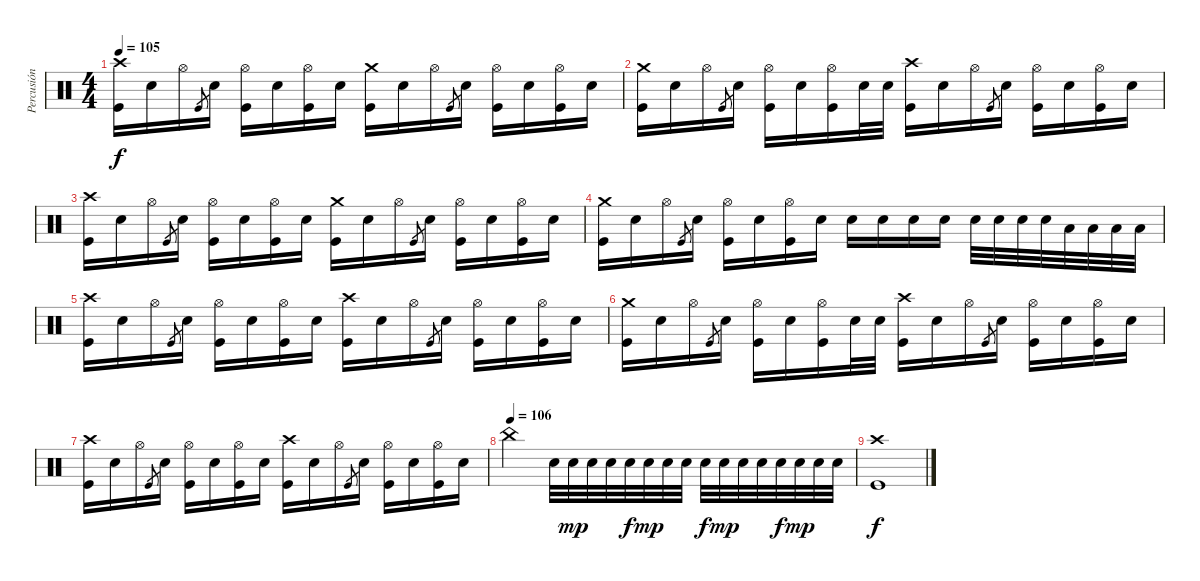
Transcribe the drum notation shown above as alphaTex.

\track ("Percusión" "Percusión") {instrument percussion}
\staff {score}
\articulation defaults
\ts (4 4)
\tempo 105
\clef neutral
\ks c
("Kick (hit)" "Crash high (hit)").16{dy f} "Snare (hit) 2".16 "Hi-Hat (open)".16 "Kick (hit)".8{gr} "Snare (hit) 2".16 ("Kick (hit)" "Hi-Hat (open)").16 "Snare (hit) 2".16 ("Kick (hit)" "Hi-Hat (open)").16 "Snare (hit) 2".16 ("Kick (hit)" "Crash medium (hit)").16 "Snare (hit) 2".16 "Hi-Hat (open)".16 "Kick (hit)".8{gr} "Snare (hit) 2".16 ("Kick (hit)" "Hi-Hat (open)").16 "Snare (hit) 2".16 ("Kick (hit)" "Hi-Hat (open)").16 "Snare (hit) 2".16 |
("Kick (hit)" "Crash medium (hit)").16 "Snare (hit) 2".16 "Hi-Hat (open)".16 "Kick (hit)".8{gr} "Snare (hit) 2".16 ("Kick (hit)" "Hi-Hat (open)").16 "Snare (hit) 2".16 ("Kick (hit)" "Hi-Hat (open)").16 "Snare (hit) 2".32 "Snare (hit) 2".32 ("Kick (hit)" "Crash high (hit)").16 "Snare (hit) 2".16 "Hi-Hat (open)".16 "Kick (hit)".8{gr} "Snare (hit) 2".16 ("Kick (hit)" "Hi-Hat (open)").16 "Snare (hit) 2".16 ("Kick (hit)" "Hi-Hat (open)").16 "Snare (hit) 2".16 |
("Kick (hit)" "Crash high (hit)").16 "Snare (hit) 2".16 "Hi-Hat (open)".16 "Kick (hit)".8{gr} "Snare (hit) 2".16 ("Kick (hit)" "Hi-Hat (open)").16 "Snare (hit) 2".16 ("Kick (hit)" "Hi-Hat (open)").16 "Snare (hit) 2".16 ("Kick (hit)" "Crash medium (hit)").16 "Snare (hit) 2".16 "Hi-Hat (open)".16 "Kick (hit)".8{gr} "Snare (hit) 2".16 ("Kick (hit)" "Hi-Hat (open)").16 "Snare (hit) 2".16 ("Kick (hit)" "Hi-Hat (open)").16 "Snare (hit) 2".16 |
("Kick (hit)" "Crash medium (hit)").16 "Snare (hit) 2".16 "Hi-Hat (open)".16 "Kick (hit)".8{gr} "Snare (hit) 2".16 ("Kick (hit)" "Hi-Hat (open)").16 "Snare (hit) 2".16 ("Kick (hit)" "Hi-Hat (open)").16 "Snare (hit) 2".16 "Snare (hit) 2".16 "Snare (hit) 2".16 "Snare (hit) 2".16 "Snare (hit) 2".16 "Snare (hit) 2".32 "Snare (hit) 2".32 "Snare (hit) 2".32 "Snare (hit) 2".32 "Low Tom (hit)".32 "Low Tom (hit)".32 "Low Tom (hit)".32 "Low Tom (hit)".32 |
("Kick (hit)" "Crash high (hit)").16 "Snare (hit) 2".16 "Hi-Hat (open)".16 "Kick (hit)".8{gr} "Snare (hit) 2".16 ("Kick (hit)" "Hi-Hat (open)").16 "Snare (hit) 2".16 ("Kick (hit)" "Hi-Hat (open)").16 "Snare (hit) 2".16 ("Kick (hit)" "Crash high (hit)").16 "Snare (hit) 2".16 "Hi-Hat (open)".16 "Kick (hit)".8{gr} "Snare (hit) 2".16 ("Kick (hit)" "Hi-Hat (open)").16 "Snare (hit) 2".16 ("Kick (hit)" "Hi-Hat (open)").16 "Snare (hit) 2".16 |
("Kick (hit)" "Crash medium (hit)").16 "Snare (hit) 2".16 "Hi-Hat (open)".16 "Kick (hit)".8{gr} "Snare (hit) 2".16 ("Kick (hit)" "Hi-Hat (open)").16 "Snare (hit) 2".16 ("Kick (hit)" "Hi-Hat (open)").16 "Snare (hit) 2".32 "Snare (hit) 2".32 ("Kick (hit)" "Crash high (hit)").16 "Snare (hit) 2".16 "Hi-Hat (open)".16 "Kick (hit)".8{gr} "Snare (hit) 2".16 ("Kick (hit)" "Hi-Hat (open)").16 "Snare (hit) 2".16 ("Kick (hit)" "Hi-Hat (open)").16 "Snare (hit) 2".16 |
("Kick (hit)" "Crash high (hit)").16 "Snare (hit) 2".16 "Hi-Hat (open)".16 "Kick (hit)".8{gr} "Snare (hit) 2".16 ("Kick (hit)" "Hi-Hat (open)").16 "Snare (hit) 2".16 ("Kick (hit)" "Hi-Hat (open)").16 "Snare (hit) 2".16 ("Kick (hit)" "Crash high (hit)").16 "Snare (hit) 2".16 "Hi-Hat (open)".16 "Kick (hit)".8{gr} "Snare (hit) 2".16 ("Kick (hit)" "Hi-Hat (open)").16 "Snare (hit) 2".16 ("Kick (hit)" "Hi-Hat (open)").16 "Snare (hit) 2".16 |
\tempo (106)
"China (hit)".2 "Snare (hit) 2".32 "Snare (hit) 2".32{dy mp} "Snare (hit) 2".32 "Snare (hit) 2".32 "Snare (hit) 2".32{dy f} "Snare (hit) 2".32{dy mp} "Snare (hit) 2".32 "Snare (hit) 2".32 "Snare (hit) 2".32{dy f} "Snare (hit) 2".32{dy mp} "Snare (hit) 2".32 "Snare (hit) 2".32 "Snare (hit) 2".32{dy f} "Snare (hit) 2".32{dy mp} "Snare (hit) 2".32 "Snare (hit) 2".32 |
("Crash high (hit)" "Kick (hit)").1{dy f}
